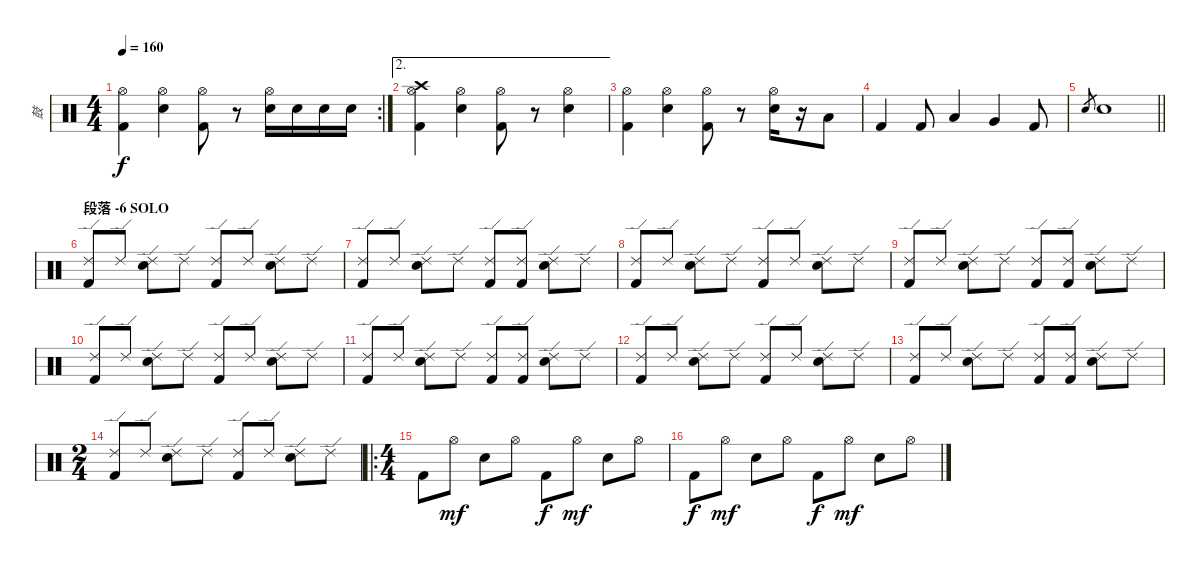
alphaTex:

\track ("鼓" "鼓") {instrument percussion}
\staff {score}
\articulation defaults
\rc 2
\ts (4 4)
\tempo 160
\clef neutral
\ks c
("Hi-Hat (open)" "Kick (hit) 2").4{dy f} ("Hi-Hat (open)" "Electric Snare (hit)").4 ("Hi-Hat (open)" "Kick (hit) 2").8 r.8 ("Hi-Hat (open)" "Electric Snare (hit)").16 "Electric Snare (hit)".16 "Electric Snare (hit)".16 "Electric Snare (hit)".16 |
\ae 2
("Crash high (hit)" "Hi-Hat (open)" "Kick (hit) 2").4 ("Hi-Hat (open)" "Electric Snare (hit)").4 ("Hi-Hat (open)" "Kick (hit) 2").8 r.8 ("Hi-Hat (open)" "Electric Snare (hit)").4 |
("Hi-Hat (open)" "Kick (hit) 2").4 ("Hi-Hat (open)" "Electric Snare (hit)").4 ("Hi-Hat (open)" "Kick (hit) 2").8 r.8 ("Hi-Hat (open)" "Electric Snare (hit)").16 r.16 "Low Tom (hit)".8 |
"Kick (hit) 2".4 "Kick (hit) 2".8 "Low Tom (hit)".4 "Very Low Tom (hit)".4 "Kick (hit) 2".8 |
\barLineRight lightlight "Electric Snare (hit)".8{gr} "Electric Snare (hit)".1
|
\section ("" "段落 -6 SOLO")
("Ride (edge) 2" "Kick (hit) 2").8 "Ride (edge) 2".8 ("Ride (edge) 2" "Electric Snare (hit)").8 "Ride (edge) 2".8 ("Ride (edge) 2" "Kick (hit) 2").8 "Ride (edge) 2".8 ("Ride (edge) 2" "Electric Snare (hit)").8 "Ride (edge) 2".8 |
("Ride (edge) 2" "Kick (hit) 2").8 "Ride (edge) 2".8 ("Ride (edge) 2" "Electric Snare (hit)").8 "Ride (edge) 2".8 ("Ride (edge) 2" "Kick (hit) 2").8 ("Ride (edge) 2" "Kick (hit) 2").8 ("Ride (edge) 2" "Electric Snare (hit)").8 "Ride (edge) 2".8 |
("Ride (edge) 2" "Kick (hit) 2").8 "Ride (edge) 2".8 ("Ride (edge) 2" "Electric Snare (hit)").8 "Ride (edge) 2".8 ("Ride (edge) 2" "Kick (hit) 2").8 "Ride (edge) 2".8 ("Ride (edge) 2" "Electric Snare (hit)").8 "Ride (edge) 2".8 |
("Ride (edge) 2" "Kick (hit) 2").8 "Ride (edge) 2".8 ("Ride (edge) 2" "Electric Snare (hit)").8 "Ride (edge) 2".8 ("Ride (edge) 2" "Kick (hit) 2").8 ("Ride (edge) 2" "Kick (hit) 2").8 ("Ride (edge) 2" "Electric Snare (hit)").8 "Ride (edge) 2".8 |
("Ride (edge) 2" "Kick (hit) 2").8 "Ride (edge) 2".8 ("Ride (edge) 2" "Electric Snare (hit)").8 "Ride (edge) 2".8 ("Ride (edge) 2" "Kick (hit) 2").8 "Ride (edge) 2".8 ("Ride (edge) 2" "Electric Snare (hit)").8 "Ride (edge) 2".8 |
("Ride (edge) 2" "Kick (hit) 2").8 "Ride (edge) 2".8 ("Ride (edge) 2" "Electric Snare (hit)").8 "Ride (edge) 2".8 ("Ride (edge) 2" "Kick (hit) 2").8 ("Ride (edge) 2" "Kick (hit) 2").8 ("Ride (edge) 2" "Electric Snare (hit)").8 "Ride (edge) 2".8 |
("Ride (edge) 2" "Kick (hit) 2").8 "Ride (edge) 2".8 ("Ride (edge) 2" "Electric Snare (hit)").8 "Ride (edge) 2".8 ("Ride (edge) 2" "Kick (hit) 2").8 "Ride (edge) 2".8 ("Ride (edge) 2" "Electric Snare (hit)").8 "Ride (edge) 2".8 |
("Ride (edge) 2" "Kick (hit) 2").8 "Ride (edge) 2".8 ("Ride (edge) 2" "Electric Snare (hit)").8 "Ride (edge) 2".8 ("Ride (edge) 2" "Kick (hit) 2").8 ("Ride (edge) 2" "Kick (hit) 2").8 ("Ride (edge) 2" "Electric Snare (hit)").8 "Ride (edge) 2".8 |
\ts (2 4)
("Ride (edge) 2" "Kick (hit) 2").8 "Ride (edge) 2".8 ("Ride (edge) 2" "Electric Snare (hit)").8 "Ride (edge) 2".8 ("Ride (edge) 2" "Kick (hit) 2").8 "Ride (edge) 2".8 ("Ride (edge) 2" "Electric Snare (hit)").8 "Ride (edge) 2".8 |
\ro
\ts (4 4)
"Kick (hit) 2".8 "Hi-Hat (open)".8{dy mf} "Electric Snare (hit)".8 "Hi-Hat (open)".8 "Kick (hit) 2".8{dy f} "Hi-Hat (open)".8{dy mf} "Electric Snare (hit)".8 "Hi-Hat (open)".8 |
"Kick (hit) 2".8{dy f} "Hi-Hat (open)".8{dy mf} "Electric Snare (hit)".8 "Hi-Hat (open)".8 "Kick (hit) 2".8{dy f} "Hi-Hat (open)".8{dy mf} "Electric Snare (hit)".8 "Hi-Hat (open)".8
